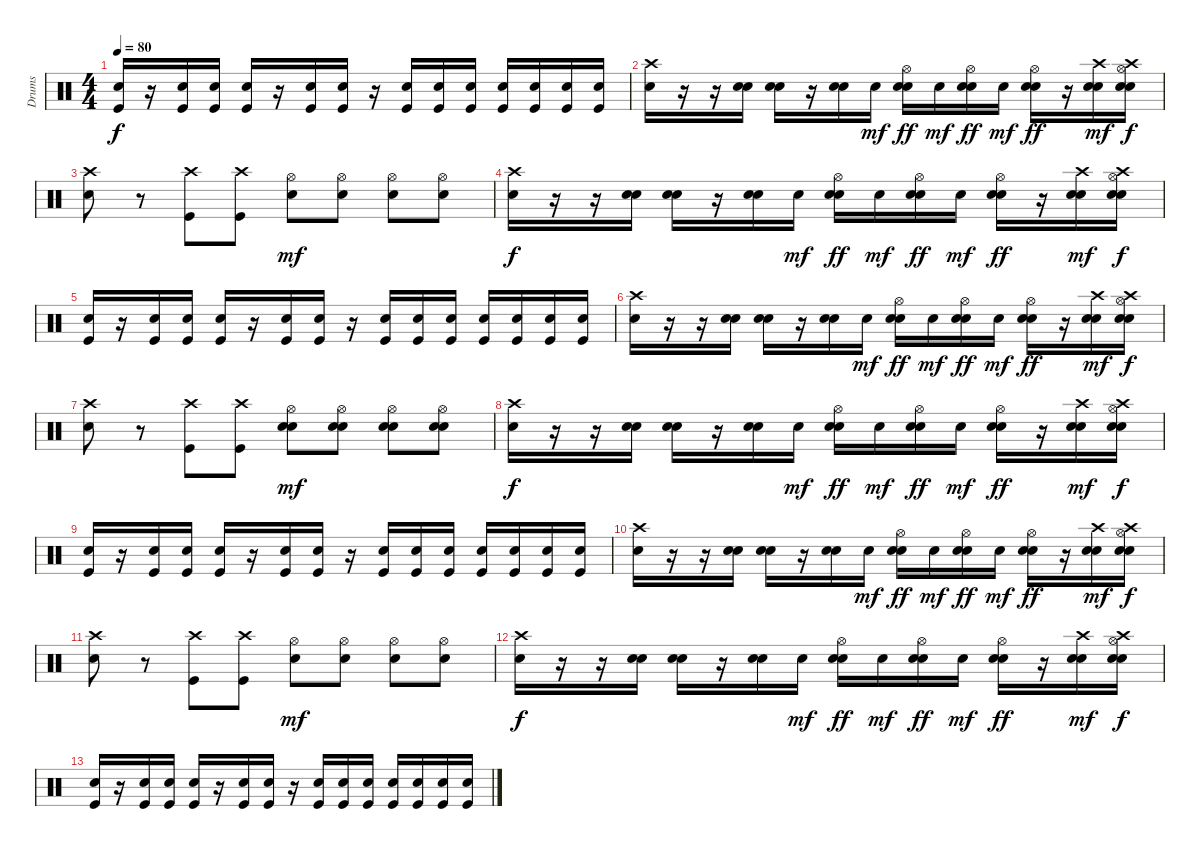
\track ("Drums" "Drums") {instrument percussion}
\staff {score}
\articulation defaults
\ts (4 4)
\tempo 80
\clef neutral
\ks c
("Kick (hit)" "Snare (hit) 2").16{dy f} r.16 ("Kick (hit)" "Snare (hit) 2").16 ("Kick (hit)" "Snare (hit) 2").16 ("Kick (hit)" "Snare (hit) 2").16 r.16 ("Snare (hit) 2" "Kick (hit)").16 ("Snare (hit) 2" "Kick (hit)").16 r.16 ("Snare (hit) 2" "Kick (hit)").16 ("Kick (hit)" "Snare (hit) 2").16 ("Snare (hit) 2" "Kick (hit)").16 ("Kick (hit)" "Snare (hit) 2").16 ("Snare (hit) 2" "Kick (hit)").16 ("Kick (hit)" "Snare (hit) 2").16 ("Snare (hit) 2" "Kick (hit)").16 |
("Crash high (hit)" "Snare (hit) 2").16 r.16 r.16 ("Electric Snare (hit)" "Snare (hit) 2").16 ("Electric Snare (hit)" "Snare (hit) 2").16 r.16 ("Electric Snare (hit)" "Snare (hit) 2").16 "Snare (hit) 2".16{dy mf} ("Hi-Hat (open)" "Electric Snare (hit)" "Snare (hit) 2").16{dy ff} "Snare (hit) 2".16{dy mf} ("Hi-Hat (open)" "Electric Snare (hit)" "Snare (hit) 2").16{dy ff} "Snare (hit) 2".16{dy mf} ("Hi-Hat (open)" "Electric Snare (hit)" "Snare (hit) 2").16{dy ff} r.16 ("Electric Snare (hit)" "Crash high (hit)" "Snare (hit) 2").16{dy mf} ("Hi-Hat (open)" "Crash high (hit)" "Electric Snare (hit)" "Snare (hit) 2").16{dy f} |
("Crash high (hit)" "Snare (hit) 2").8 r.8 ("Kick (hit)" "Crash high (hit)").8 ("Kick (hit)" "Crash high (hit)").8 ("Hi-Hat (open)" "Snare (hit) 2").8{dy mf} ("Hi-Hat (open)" "Snare (hit) 2").8 ("Hi-Hat (open)" "Snare (hit) 2").8 ("Hi-Hat (open)" "Snare (hit) 2").8 |
("Crash high (hit)" "Snare (hit) 2").16{dy f} r.16 r.16 ("Electric Snare (hit)" "Snare (hit) 2").16 ("Electric Snare (hit)" "Snare (hit) 2").16 r.16 ("Electric Snare (hit)" "Snare (hit) 2").16 "Snare (hit) 2".16{dy mf} ("Hi-Hat (open)" "Electric Snare (hit)" "Snare (hit) 2").16{dy ff} "Snare (hit) 2".16{dy mf} ("Hi-Hat (open)" "Electric Snare (hit)" "Snare (hit) 2").16{dy ff} "Snare (hit) 2".16{dy mf} ("Hi-Hat (open)" "Electric Snare (hit)" "Snare (hit) 2").16{dy ff} r.16 ("Electric Snare (hit)" "Crash high (hit)" "Snare (hit) 2").16{dy mf} ("Hi-Hat (open)" "Crash high (hit)" "Electric Snare (hit)" "Snare (hit) 2").16{dy f} |
("Kick (hit)" "Snare (hit) 2").16 r.16 ("Kick (hit)" "Snare (hit) 2").16 ("Kick (hit)" "Snare (hit) 2").16 ("Kick (hit)" "Snare (hit) 2").16 r.16 ("Snare (hit) 2" "Kick (hit)").16 ("Snare (hit) 2" "Kick (hit)").16 r.16 ("Snare (hit) 2" "Kick (hit)").16 ("Kick (hit)" "Snare (hit) 2").16 ("Snare (hit) 2" "Kick (hit)").16 ("Kick (hit)" "Snare (hit) 2").16 ("Snare (hit) 2" "Kick (hit)").16 ("Kick (hit)" "Snare (hit) 2").16 ("Snare (hit) 2" "Kick (hit)").16 |
("Crash high (hit)" "Snare (hit) 2").16 r.16 r.16 ("Electric Snare (hit)" "Snare (hit) 2").16 ("Electric Snare (hit)" "Snare (hit) 2").16 r.16 ("Electric Snare (hit)" "Snare (hit) 2").16 "Snare (hit) 2".16{dy mf} ("Hi-Hat (open)" "Electric Snare (hit)" "Snare (hit) 2").16{dy ff} "Snare (hit) 2".16{dy mf} ("Hi-Hat (open)" "Electric Snare (hit)" "Snare (hit) 2").16{dy ff} "Snare (hit) 2".16{dy mf} ("Hi-Hat (open)" "Electric Snare (hit)" "Snare (hit) 2").16{dy ff} r.16 ("Electric Snare (hit)" "Crash high (hit)" "Snare (hit) 2").16{dy mf} ("Hi-Hat (open)" "Crash high (hit)" "Electric Snare (hit)" "Snare (hit) 2").16{dy f} |
("Crash high (hit)" "Snare (hit) 2").8 r.8 ("Kick (hit)" "Crash high (hit)").8 ("Kick (hit)" "Crash high (hit)").8 ("Hi-Hat (open)" "Electric Snare (hit)" "Snare (hit) 2").8{dy mf} ("Hi-Hat (open)" "Electric Snare (hit)" "Snare (hit) 2").8 ("Hi-Hat (open)" "Electric Snare (hit)" "Snare (hit) 2").8 ("Hi-Hat (open)" "Electric Snare (hit)" "Snare (hit) 2").8 |
("Crash high (hit)" "Snare (hit) 2").16{dy f} r.16 r.16 ("Electric Snare (hit)" "Snare (hit) 2").16 ("Electric Snare (hit)" "Snare (hit) 2").16 r.16 ("Electric Snare (hit)" "Snare (hit) 2").16 "Snare (hit) 2".16{dy mf} ("Hi-Hat (open)" "Electric Snare (hit)" "Snare (hit) 2").16{dy ff} "Snare (hit) 2".16{dy mf} ("Hi-Hat (open)" "Electric Snare (hit)" "Snare (hit) 2").16{dy ff} "Snare (hit) 2".16{dy mf} ("Hi-Hat (open)" "Electric Snare (hit)" "Snare (hit) 2").16{dy ff} r.16 ("Electric Snare (hit)" "Crash high (hit)" "Snare (hit) 2").16{dy mf} ("Hi-Hat (open)" "Crash high (hit)" "Electric Snare (hit)" "Snare (hit) 2").16{dy f} |
("Kick (hit)" "Snare (hit) 2").16 r.16 ("Kick (hit)" "Snare (hit) 2").16 ("Kick (hit)" "Snare (hit) 2").16 ("Kick (hit)" "Snare (hit) 2").16 r.16 ("Snare (hit) 2" "Kick (hit)").16 ("Snare (hit) 2" "Kick (hit)").16 r.16 ("Snare (hit) 2" "Kick (hit)").16 ("Kick (hit)" "Snare (hit) 2").16 ("Snare (hit) 2" "Kick (hit)").16 ("Kick (hit)" "Snare (hit) 2").16 ("Snare (hit) 2" "Kick (hit)").16 ("Kick (hit)" "Snare (hit) 2").16 ("Snare (hit) 2" "Kick (hit)").16 |
("Crash high (hit)" "Snare (hit) 2").16 r.16 r.16 ("Electric Snare (hit)" "Snare (hit) 2").16 ("Electric Snare (hit)" "Snare (hit) 2").16 r.16 ("Electric Snare (hit)" "Snare (hit) 2").16 "Snare (hit) 2".16{dy mf} ("Hi-Hat (open)" "Electric Snare (hit)" "Snare (hit) 2").16{dy ff} "Snare (hit) 2".16{dy mf} ("Hi-Hat (open)" "Electric Snare (hit)" "Snare (hit) 2").16{dy ff} "Snare (hit) 2".16{dy mf} ("Hi-Hat (open)" "Electric Snare (hit)" "Snare (hit) 2").16{dy ff} r.16 ("Electric Snare (hit)" "Crash high (hit)" "Snare (hit) 2").16{dy mf} ("Hi-Hat (open)" "Crash high (hit)" "Electric Snare (hit)" "Snare (hit) 2").16{dy f} |
("Crash high (hit)" "Snare (hit) 2").8 r.8 ("Kick (hit)" "Crash high (hit)").8 ("Kick (hit)" "Crash high (hit)").8 ("Hi-Hat (open)" "Snare (hit) 2").8{dy mf} ("Hi-Hat (open)" "Snare (hit) 2").8 ("Hi-Hat (open)" "Snare (hit) 2").8 ("Hi-Hat (open)" "Snare (hit) 2").8 |
("Crash high (hit)" "Snare (hit) 2").16{dy f} r.16 r.16 ("Electric Snare (hit)" "Snare (hit) 2").16 ("Electric Snare (hit)" "Snare (hit) 2").16 r.16 ("Electric Snare (hit)" "Snare (hit) 2").16 "Snare (hit) 2".16{dy mf} ("Hi-Hat (open)" "Electric Snare (hit)" "Snare (hit) 2").16{dy ff} "Snare (hit) 2".16{dy mf} ("Hi-Hat (open)" "Electric Snare (hit)" "Snare (hit) 2").16{dy ff} "Snare (hit) 2".16{dy mf} ("Hi-Hat (open)" "Electric Snare (hit)" "Snare (hit) 2").16{dy ff} r.16 ("Electric Snare (hit)" "Crash high (hit)" "Snare (hit) 2").16{dy mf} ("Hi-Hat (open)" "Crash high (hit)" "Electric Snare (hit)" "Snare (hit) 2").16{dy f} |
("Kick (hit)" "Snare (hit) 2").16 r.16 ("Kick (hit)" "Snare (hit) 2").16 ("Kick (hit)" "Snare (hit) 2").16 ("Kick (hit)" "Snare (hit) 2").16 r.16 ("Snare (hit) 2" "Kick (hit)").16 ("Snare (hit) 2" "Kick (hit)").16 r.16 ("Snare (hit) 2" "Kick (hit)").16 ("Kick (hit)" "Snare (hit) 2").16 ("Snare (hit) 2" "Kick (hit)").16 ("Kick (hit)" "Snare (hit) 2").16 ("Snare (hit) 2" "Kick (hit)").16 ("Kick (hit)" "Snare (hit) 2").16 ("Snare (hit) 2" "Kick (hit)").16
